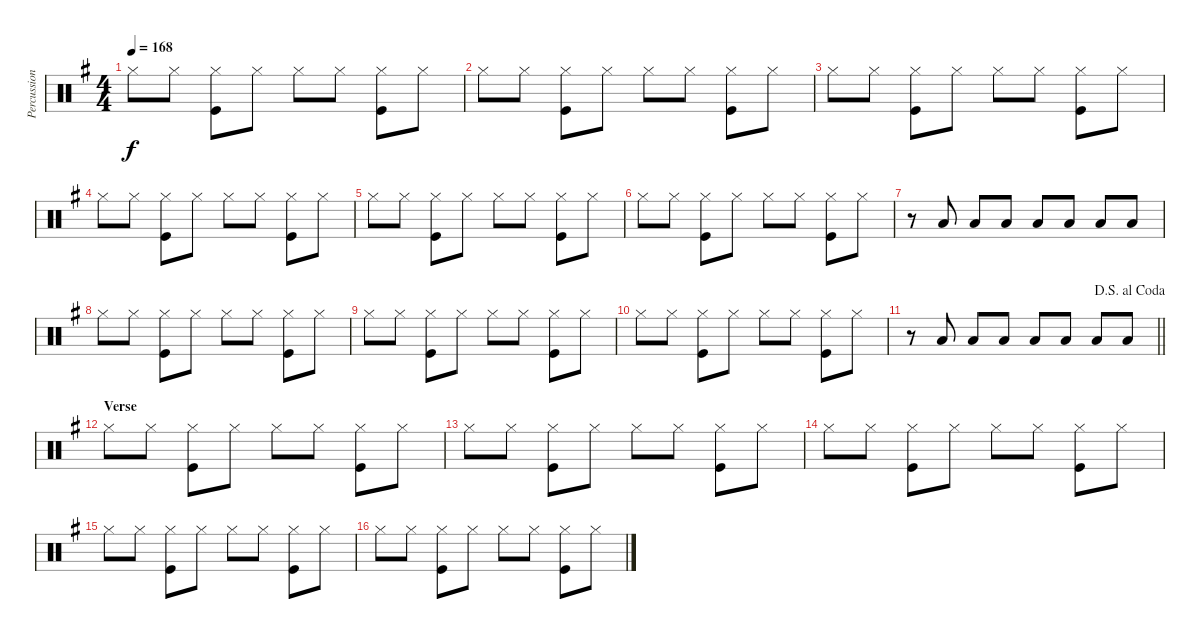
\track ("Percussion" "Percussion") {instrument percussion}
\staff {score}
\articulation defaults
\ts (4 4)
\tempo 168
\clef neutral
\ks g "Hi-Hat (closed)".8{dy f} "Hi-Hat (closed)".8
("Hi-Hat (closed)" "Kick (hit)").8 "Hi-Hat (closed)".8 "Hi-Hat (closed)".8 "Hi-Hat (closed)".8 ("Hi-Hat (closed)" "Kick (hit)").8 "Hi-Hat (closed)".8 |
"Hi-Hat (closed)".8 "Hi-Hat (closed)".8 ("Hi-Hat (closed)" "Kick (hit)").8 "Hi-Hat (closed)".8 "Hi-Hat (closed)".8 "Hi-Hat (closed)".8 ("Hi-Hat (closed)" "Kick (hit)").8 "Hi-Hat (closed)".8 |
"Hi-Hat (closed)".8 "Hi-Hat (closed)".8 ("Hi-Hat (closed)" "Kick (hit)").8 "Hi-Hat (closed)".8 "Hi-Hat (closed)".8 "Hi-Hat (closed)".8 ("Hi-Hat (closed)" "Kick (hit)").8 "Hi-Hat (closed)".8 |
"Hi-Hat (closed)".8 "Hi-Hat (closed)".8 ("Hi-Hat (closed)" "Kick (hit)").8 "Hi-Hat (closed)".8 "Hi-Hat (closed)".8 "Hi-Hat (closed)".8 ("Hi-Hat (closed)" "Kick (hit)").8 "Hi-Hat (closed)".8 |
"Hi-Hat (closed)".8 "Hi-Hat (closed)".8 ("Hi-Hat (closed)" "Kick (hit)").8 "Hi-Hat (closed)".8 "Hi-Hat (closed)".8 "Hi-Hat (closed)".8 ("Hi-Hat (closed)" "Kick (hit)").8 "Hi-Hat (closed)".8 |
"Hi-Hat (closed)".8 "Hi-Hat (closed)".8 ("Hi-Hat (closed)" "Kick (hit)").8 "Hi-Hat (closed)".8 "Hi-Hat (closed)".8 "Hi-Hat (closed)".8 ("Hi-Hat (closed)" "Kick (hit)").8 "Hi-Hat (closed)".8 |
r.8 "Low Tom (hit)".8 "Low Tom (hit)".8 "Low Tom (hit)".8 "Low Tom (hit)".8 "Low Tom (hit)".8 "Low Tom (hit)".8 "Low Tom (hit)".8 |
"Hi-Hat (closed)".8 "Hi-Hat (closed)".8 ("Hi-Hat (closed)" "Kick (hit)").8 "Hi-Hat (closed)".8 "Hi-Hat (closed)".8 "Hi-Hat (closed)".8 ("Hi-Hat (closed)" "Kick (hit)").8 "Hi-Hat (closed)".8 |
"Hi-Hat (closed)".8 "Hi-Hat (closed)".8 ("Hi-Hat (closed)" "Kick (hit)").8 "Hi-Hat (closed)".8 "Hi-Hat (closed)".8 "Hi-Hat (closed)".8 ("Hi-Hat (closed)" "Kick (hit)").8 "Hi-Hat (closed)".8 |
"Hi-Hat (closed)".8 "Hi-Hat (closed)".8 ("Hi-Hat (closed)" "Kick (hit)").8 "Hi-Hat (closed)".8 "Hi-Hat (closed)".8 "Hi-Hat (closed)".8 ("Hi-Hat (closed)" "Kick (hit)").8 "Hi-Hat (closed)".8 |
\jump dalsegnoalcoda
\barLineRight lightlight
r.8 "Low Tom (hit)".8 "Low Tom (hit)".8 "Low Tom (hit)".8 "Low Tom (hit)".8 "Low Tom (hit)".8 "Low Tom (hit)".8 "Low Tom (hit)".8 |
\section ("" "Verse")
"Hi-Hat (closed)".8 "Hi-Hat (closed)".8 ("Hi-Hat (closed)" "Kick (hit)").8 "Hi-Hat (closed)".8 "Hi-Hat (closed)".8 "Hi-Hat (closed)".8 ("Hi-Hat (closed)" "Kick (hit)").8 "Hi-Hat (closed)".8 |
"Hi-Hat (closed)".8 "Hi-Hat (closed)".8 ("Hi-Hat (closed)" "Kick (hit)").8 "Hi-Hat (closed)".8 "Hi-Hat (closed)".8 "Hi-Hat (closed)".8 ("Hi-Hat (closed)" "Kick (hit)").8 "Hi-Hat (closed)".8 |
"Hi-Hat (closed)".8 "Hi-Hat (closed)".8 ("Hi-Hat (closed)" "Kick (hit)").8 "Hi-Hat (closed)".8 "Hi-Hat (closed)".8 "Hi-Hat (closed)".8 ("Hi-Hat (closed)" "Kick (hit)").8 "Hi-Hat (closed)".8 |
"Hi-Hat (closed)".8 "Hi-Hat (closed)".8 ("Hi-Hat (closed)" "Kick (hit)").8 "Hi-Hat (closed)".8 "Hi-Hat (closed)".8 "Hi-Hat (closed)".8 ("Hi-Hat (closed)" "Kick (hit)").8 "Hi-Hat (closed)".8 |
"Hi-Hat (closed)".8 "Hi-Hat (closed)".8 ("Hi-Hat (closed)" "Kick (hit)").8 "Hi-Hat (closed)".8 "Hi-Hat (closed)".8 "Hi-Hat (closed)".8 ("Hi-Hat (closed)" "Kick (hit)").8 "Hi-Hat (closed)".8
